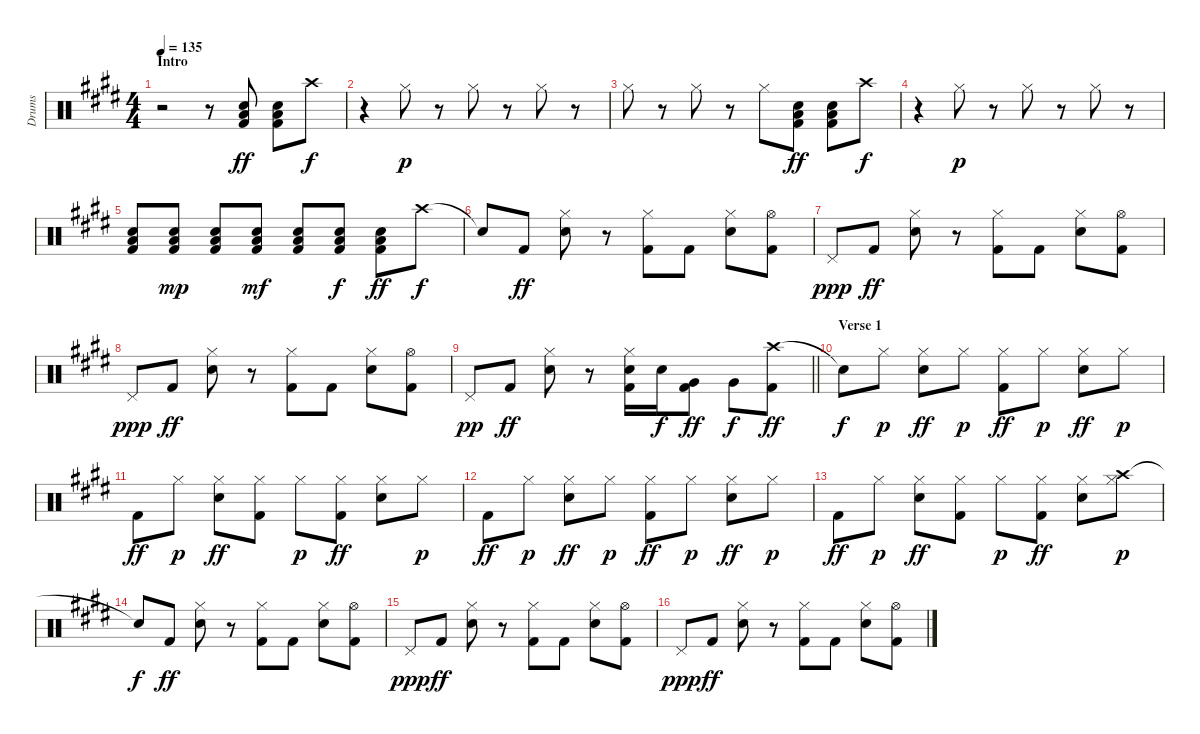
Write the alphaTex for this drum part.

\track ("Drums" "Drums") {instrument percussion}
\staff {score}
\articulation defaults
\ts (4 4)
\section ("" "Intro")
\tempo 135
\clef neutral
\ks e
r.2{dy ff} r.8 ("Low Tom (hit)" "Snare (hit) 2" "Kick (hit) 2").8 ("Low Tom (hit)" "Snare (hit) 2" "Kick (hit) 2").8 "Crash high (hit)".8{dy f} |
r.4 "Hi-Hat (closed)".8{dy p} r.8 "Hi-Hat (closed)".8 r.8 "Hi-Hat (closed)".8 r.8 |
"Hi-Hat (closed)".8 r.8 "Hi-Hat (closed)".8 r.8 "Hi-Hat (closed)".8 ("Low Tom (hit)" "Snare (hit) 2" "Kick (hit) 2").8{dy ff} ("Low Tom (hit)" "Snare (hit) 2" "Kick (hit) 2").8 "Crash high (hit)".8{dy f} |
r.4 "Hi-Hat (closed)".8{dy p} r.8 "Hi-Hat (closed)".8 r.8 "Hi-Hat (closed)".8 r.8 |
("Low Tom (hit)" "Snare (hit) 2" "Kick (hit) 2").8 ("Low Tom (hit)" "Snare (hit) 2" "Kick (hit) 2").8{dy mp} ("Low Tom (hit)" "Snare (hit) 2" "Kick (hit) 2").8 ("Low Tom (hit)" "Snare (hit) 2" "Kick (hit) 2").8{dy mf} ("Low Tom (hit)" "Snare (hit) 2" "Kick (hit) 2").8 ("Low Tom (hit)" "Snare (hit) 2" "Kick (hit) 2").8{dy f} ("Low Tom (hit)" "Snare (hit) 2" "Kick (hit) 2").8{dy ff} "Crash high (hit)".8{dy f} |
"Snare (hit)"{t}.8 "Kick (hit) 2".8{dy ff} ("Hi-Hat (closed)" "Snare (hit) 2").8 r.8 ("Hi-Hat (closed)" "Kick (hit) 2").8 "Kick (hit) 2".8 ("Hi-Hat (closed)" "Snare (hit) 2").8 ("Hi-Hat (open)" "Kick (hit) 2").8 |
"Pedal Hi-Hat (hit)".8{dy ppp} "Kick (hit) 2".8{dy ff} ("Hi-Hat (closed)" "Snare (hit) 2").8 r.8 ("Hi-Hat (closed)" "Kick (hit) 2").8 "Kick (hit) 2".8 ("Hi-Hat (closed)" "Snare (hit) 2").8 ("Hi-Hat (open)" "Kick (hit) 2").8 |
"Pedal Hi-Hat (hit)".8{dy ppp} "Kick (hit) 2".8{dy ff} ("Hi-Hat (closed)" "Snare (hit) 2").8 r.8 ("Hi-Hat (closed)" "Kick (hit) 2").8 "Kick (hit) 2".8 ("Hi-Hat (closed)" "Snare (hit) 2").8 ("Hi-Hat (open)" "Kick (hit) 2").8 |
\barLineRight lightlight "Pedal Hi-Hat (hit)".8{dy pp} "Kick (hit) 2".8{dy ff}
("Hi-Hat (closed)" "Snare (hit) 2").8 r.8 ("Hi-Hat (closed)" "Snare (hit) 2" "Kick (hit) 2").16 "Snare (hit) 2".16{dy f} ("Very Low Tom (hit)" "Kick (hit) 2").8{dy ff} "Very Low Tom (hit)".8{dy f} ("Crash high (hit)" "Kick (hit) 2").8{dy ff} |
\section ("" "Verse 1")
"Snare (hit)"{t}.8{dy f} "Hi-Hat (closed)".8{dy p} ("Hi-Hat (closed)" "Snare (hit) 2").8{dy ff} "Hi-Hat (closed)".8{dy p} ("Hi-Hat (closed)" "Kick (hit) 2").8{dy ff} "Hi-Hat (closed)".8{dy p} ("Hi-Hat (closed)" "Snare (hit) 2").8{dy ff} "Hi-Hat (closed)".8{dy p} |
"Kick (hit) 2".8{dy ff} "Hi-Hat (closed)".8{dy p} ("Hi-Hat (closed)" "Snare (hit) 2").8{dy ff} ("Hi-Hat (closed)" "Kick (hit) 2").8 "Hi-Hat (closed)".8{dy p} ("Hi-Hat (closed)" "Kick (hit) 2").8{dy ff} ("Hi-Hat (closed)" "Snare (hit) 2").8 "Hi-Hat (closed)".8{dy p} |
"Kick (hit) 2".8{dy ff} "Hi-Hat (closed)".8{dy p} ("Hi-Hat (closed)" "Snare (hit) 2").8{dy ff} "Hi-Hat (closed)".8{dy p} ("Hi-Hat (closed)" "Kick (hit) 2").8{dy ff} "Hi-Hat (closed)".8{dy p} ("Hi-Hat (closed)" "Snare (hit) 2").8{dy ff} "Hi-Hat (closed)".8{dy p} |
"Kick (hit) 2".8{dy ff} "Hi-Hat (closed)".8{dy p} ("Hi-Hat (closed)" "Snare (hit) 2").8{dy ff} ("Hi-Hat (closed)" "Kick (hit) 2").8 "Hi-Hat (closed)".8{dy p} ("Hi-Hat (closed)" "Kick (hit) 2").8{dy ff} ("Hi-Hat (closed)" "Snare (hit) 2").8 ("Crash high (hit)" "Hi-Hat (closed)").8{dy p} |
"Snare (hit)"{t}.8{dy f} "Kick (hit) 2".8{dy ff} ("Hi-Hat (closed)" "Snare (hit) 2").8 r.8 ("Hi-Hat (closed)" "Kick (hit) 2").8 "Kick (hit) 2".8 ("Hi-Hat (closed)" "Snare (hit) 2").8 ("Hi-Hat (open)" "Kick (hit) 2").8 |
"Pedal Hi-Hat (hit)".8{dy ppp} "Kick (hit) 2".8{dy ff} ("Hi-Hat (closed)" "Snare (hit) 2").8 r.8 ("Hi-Hat (closed)" "Kick (hit) 2").8 "Kick (hit) 2".8 ("Hi-Hat (closed)" "Snare (hit) 2").8 ("Hi-Hat (open)" "Kick (hit) 2").8 |
"Pedal Hi-Hat (hit)".8{dy ppp} "Kick (hit) 2".8{dy ff} ("Hi-Hat (closed)" "Snare (hit) 2").8 r.8 ("Hi-Hat (closed)" "Kick (hit) 2").8 "Kick (hit) 2".8 ("Hi-Hat (closed)" "Snare (hit) 2").8 ("Hi-Hat (open)" "Kick (hit) 2").8
